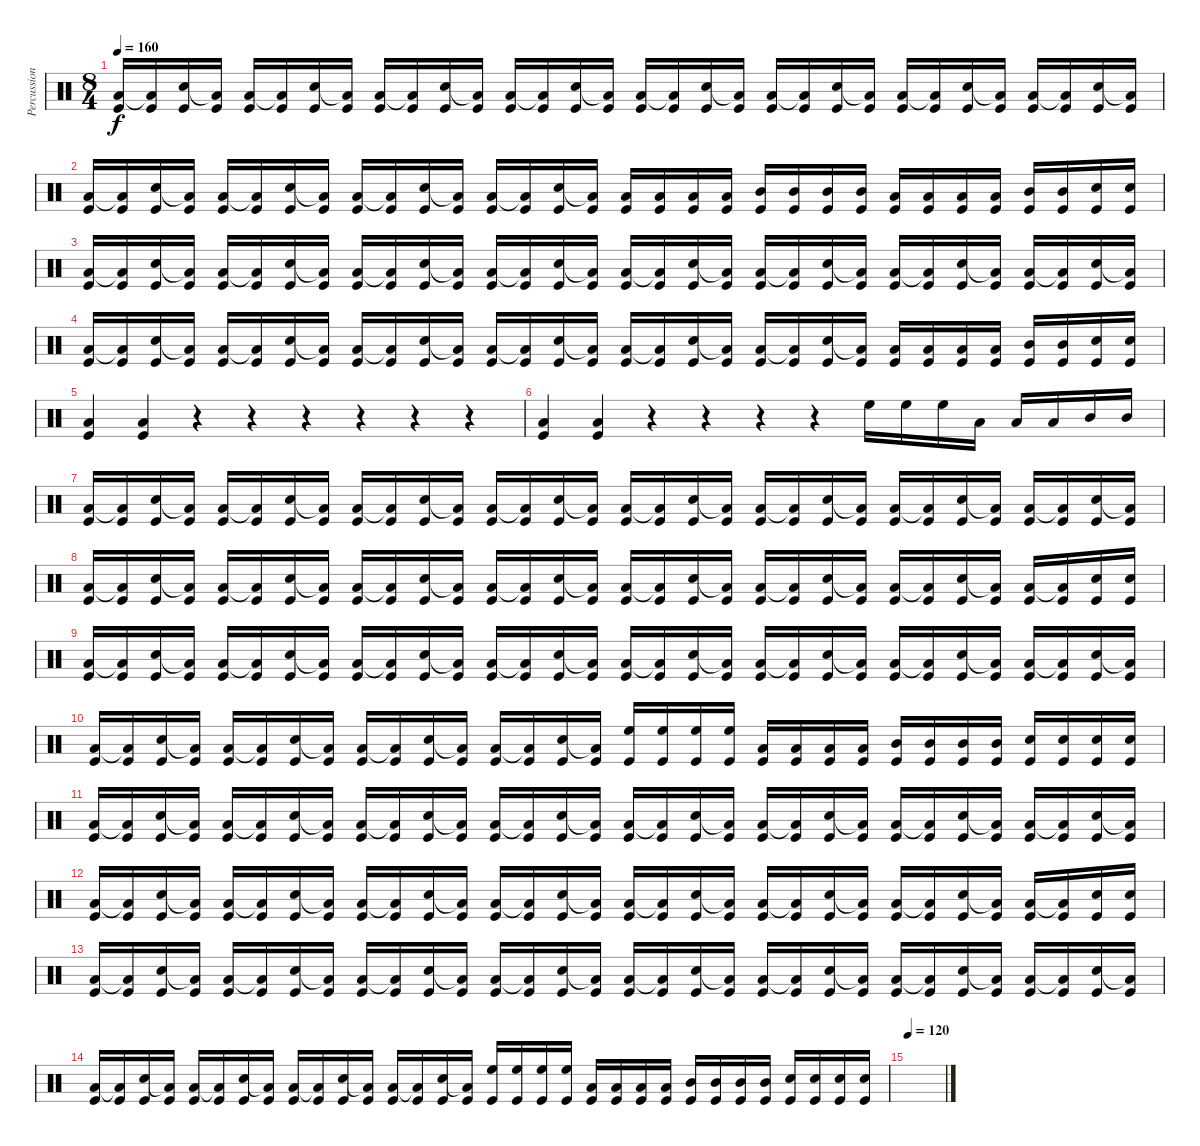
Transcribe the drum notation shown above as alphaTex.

\track ("Percussioni" "Percussion") {instrument percussion}
\staff {score}
\articulation defaults
\ts (8 4)
\tempo 160
\clef neutral
\ks c
("Low Tom (hit)" "Kick (hit)").16{dy f} ("Low Tom (hit)"{t} "Kick (hit)").16 ("Snare (hit) 2" "Kick (hit)").16 ("Low Tom (hit)"{t} "Kick (hit)").16 ("Low Tom (hit)" "Kick (hit)").16 ("Low Tom (hit)"{t} "Kick (hit)").16 ("Snare (hit) 2" "Kick (hit)").16 ("Low Tom (hit)"{t} "Kick (hit)").16 ("Low Tom (hit)" "Kick (hit)").16 ("Low Tom (hit)"{t} "Kick (hit)").16 ("Snare (hit) 2" "Kick (hit)").16 ("Low Tom (hit)"{t} "Kick (hit)").16 ("Low Tom (hit)" "Kick (hit)").16 ("Low Tom (hit)"{t} "Kick (hit)").16 ("Snare (hit) 2" "Kick (hit)").16 ("Low Tom (hit)"{t} "Kick (hit)").16 ("Low Tom (hit)" "Kick (hit)").16 ("Low Tom (hit)"{t} "Kick (hit)").16 ("Snare (hit) 2" "Kick (hit)").16 ("Low Tom (hit)"{t} "Kick (hit)").16 ("Low Tom (hit)" "Kick (hit)").16 ("Low Tom (hit)"{t} "Kick (hit)").16 ("Snare (hit) 2" "Kick (hit)").16 ("Low Tom (hit)"{t} "Kick (hit)").16 ("Low Tom (hit)" "Kick (hit)").16 ("Low Tom (hit)"{t} "Kick (hit)").16 ("Snare (hit) 2" "Kick (hit)").16 ("Low Tom (hit)"{t} "Kick (hit)").16 ("Low Tom (hit)" "Kick (hit)").16 ("Low Tom (hit)"{t} "Kick (hit)").16 ("Snare (hit) 2" "Kick (hit)").16 ("Low Tom (hit)"{t} "Kick (hit)").16 |
("Low Tom (hit)" "Kick (hit)").16 ("Low Tom (hit)"{t} "Kick (hit)").16 ("Snare (hit) 2" "Kick (hit)").16 ("Low Tom (hit)"{t} "Kick (hit)").16 ("Low Tom (hit)" "Kick (hit)").16 ("Low Tom (hit)"{t} "Kick (hit)").16 ("Snare (hit) 2" "Kick (hit)").16 ("Low Tom (hit)"{t} "Kick (hit)").16 ("Low Tom (hit)" "Kick (hit)").16 ("Low Tom (hit)"{t} "Kick (hit)").16 ("Snare (hit) 2" "Kick (hit)").16 ("Low Tom (hit)"{t} "Kick (hit)").16 ("Low Tom (hit)" "Kick (hit)").16 ("Low Tom (hit)"{t} "Kick (hit)").16 ("Snare (hit) 2" "Kick (hit)").16 ("Low Tom (hit)"{t} "Kick (hit)").16 ("Low Tom (hit)" "Kick (hit)").16 ("Low Tom (hit)" "Kick (hit)").16 ("Low Tom (hit)" "Kick (hit)").16 ("Low Tom (hit)" "Kick (hit)").16 ("Mid Tom (hit)" "Kick (hit)").16 ("Mid Tom (hit)" "Kick (hit)").16 ("Mid Tom (hit)" "Kick (hit)").16 ("Mid Tom (hit)" "Kick (hit)").16 ("Low Tom (hit)" "Kick (hit)").16 ("Low Tom (hit)" "Kick (hit)").16 ("Low Tom (hit)" "Kick (hit)").16 ("Low Tom (hit)" "Kick (hit)").16 ("Mid Tom (hit)" "Kick (hit)").16 ("Mid Tom (hit)" "Kick (hit)").16 ("Snare (hit) 2" "Kick (hit)").16 ("Snare (hit) 2" "Kick (hit)").16 |
("Low Tom (hit)" "Kick (hit)").16 ("Low Tom (hit)"{t} "Kick (hit)").16 ("Snare (hit) 2" "Kick (hit)").16 ("Low Tom (hit)"{t} "Kick (hit)").16 ("Low Tom (hit)" "Kick (hit)").16 ("Low Tom (hit)"{t} "Kick (hit)").16 ("Snare (hit) 2" "Kick (hit)").16 ("Low Tom (hit)"{t} "Kick (hit)").16 ("Low Tom (hit)" "Kick (hit)").16 ("Low Tom (hit)"{t} "Kick (hit)").16 ("Snare (hit) 2" "Kick (hit)").16 ("Low Tom (hit)"{t} "Kick (hit)").16 ("Low Tom (hit)" "Kick (hit)").16 ("Low Tom (hit)"{t} "Kick (hit)").16 ("Snare (hit) 2" "Kick (hit)").16 ("Low Tom (hit)"{t} "Kick (hit)").16 ("Low Tom (hit)" "Kick (hit)").16 ("Low Tom (hit)"{t} "Kick (hit)").16 ("Snare (hit) 2" "Kick (hit)").16 ("Low Tom (hit)"{t} "Kick (hit)").16 ("Low Tom (hit)" "Kick (hit)").16 ("Low Tom (hit)"{t} "Kick (hit)").16 ("Snare (hit) 2" "Kick (hit)").16 ("Low Tom (hit)"{t} "Kick (hit)").16 ("Low Tom (hit)" "Kick (hit)").16 ("Low Tom (hit)"{t} "Kick (hit)").16 ("Snare (hit) 2" "Kick (hit)").16 ("Low Tom (hit)"{t} "Kick (hit)").16 ("Low Tom (hit)" "Kick (hit)").16 ("Low Tom (hit)"{t} "Kick (hit)").16 ("Snare (hit) 2" "Kick (hit)").16 ("Low Tom (hit)"{t} "Kick (hit)").16 |
("Low Tom (hit)" "Kick (hit)").16 ("Low Tom (hit)"{t} "Kick (hit)").16 ("Snare (hit) 2" "Kick (hit)").16 ("Low Tom (hit)"{t} "Kick (hit)").16 ("Low Tom (hit)" "Kick (hit)").16 ("Low Tom (hit)"{t} "Kick (hit)").16 ("Snare (hit) 2" "Kick (hit)").16 ("Low Tom (hit)"{t} "Kick (hit)").16 ("Low Tom (hit)" "Kick (hit)").16 ("Low Tom (hit)"{t} "Kick (hit)").16 ("Snare (hit) 2" "Kick (hit)").16 ("Low Tom (hit)"{t} "Kick (hit)").16 ("Low Tom (hit)" "Kick (hit)").16 ("Low Tom (hit)"{t} "Kick (hit)").16 ("Snare (hit) 2" "Kick (hit)").16 ("Low Tom (hit)"{t} "Kick (hit)").16 ("Low Tom (hit)" "Kick (hit)").16 ("Low Tom (hit)"{t} "Kick (hit)").16 ("Snare (hit) 2" "Kick (hit)").16 ("Low Tom (hit)"{t} "Kick (hit)").16 ("Low Tom (hit)" "Kick (hit)").16 ("Low Tom (hit)"{t} "Kick (hit)").16 ("Snare (hit) 2" "Kick (hit)").16 ("Low Tom (hit)"{t} "Kick (hit)").16 ("Low Tom (hit)" "Kick (hit)").16 ("Low Tom (hit)" "Kick (hit)").16 ("Low Tom (hit)" "Kick (hit)").16 ("Low Tom (hit)" "Kick (hit)").16 ("Mid Tom (hit)" "Kick (hit)").16 ("Mid Tom (hit)" "Kick (hit)").16 ("Snare (hit) 2" "Kick (hit)").16 ("Snare (hit) 2" "Kick (hit)").16 |
("Low Tom (hit)" "Kick (hit)").4 ("Low Tom (hit)" "Kick (hit)").4 r.4 r.4 r.4 r.4 r.4 r.4 |
("Low Tom (hit)" "Kick (hit)").4 ("Low Tom (hit)" "Kick (hit)").4 r.4 r.4 r.4 r.4 "High Floor Tom (hit)".16 "High Floor Tom (hit)".16 "High Floor Tom (hit)".16 "Low Tom (hit)".16 "Low Tom (hit)".16 "Low Tom (hit)".16 "Mid Tom (hit)".16 "Mid Tom (hit)".16 |
("Low Tom (hit)" "Kick (hit)").16 ("Low Tom (hit)"{t} "Kick (hit)").16 ("Snare (hit) 2" "Kick (hit)").16 ("Low Tom (hit)"{t} "Kick (hit)").16 ("Low Tom (hit)" "Kick (hit)").16 ("Low Tom (hit)"{t} "Kick (hit)").16 ("Snare (hit) 2" "Kick (hit)").16 ("Low Tom (hit)"{t} "Kick (hit)").16 ("Low Tom (hit)" "Kick (hit)").16 ("Low Tom (hit)"{t} "Kick (hit)").16 ("Snare (hit) 2" "Kick (hit)").16 ("Low Tom (hit)"{t} "Kick (hit)").16 ("Low Tom (hit)" "Kick (hit)").16 ("Low Tom (hit)"{t} "Kick (hit)").16 ("Snare (hit) 2" "Kick (hit)").16 ("Low Tom (hit)"{t} "Kick (hit)").16 ("Low Tom (hit)" "Kick (hit)").16 ("Low Tom (hit)"{t} "Kick (hit)").16 ("Snare (hit) 2" "Kick (hit)").16 ("Low Tom (hit)"{t} "Kick (hit)").16 ("Low Tom (hit)" "Kick (hit)").16 ("Low Tom (hit)"{t} "Kick (hit)").16 ("Snare (hit) 2" "Kick (hit)").16 ("Low Tom (hit)"{t} "Kick (hit)").16 ("Low Tom (hit)" "Kick (hit)").16 ("Low Tom (hit)"{t} "Kick (hit)").16 ("Snare (hit) 2" "Kick (hit)").16 ("Low Tom (hit)"{t} "Kick (hit)").16 ("Low Tom (hit)" "Kick (hit)").16 ("Low Tom (hit)"{t} "Kick (hit)").16 ("Snare (hit) 2" "Kick (hit)").16 ("Low Tom (hit)"{t} "Kick (hit)").16 |
("Low Tom (hit)" "Kick (hit)").16 ("Low Tom (hit)"{t} "Kick (hit)").16 ("Snare (hit) 2" "Kick (hit)").16 ("Low Tom (hit)"{t} "Kick (hit)").16 ("Low Tom (hit)" "Kick (hit)").16 ("Low Tom (hit)"{t} "Kick (hit)").16 ("Snare (hit) 2" "Kick (hit)").16 ("Low Tom (hit)"{t} "Kick (hit)").16 ("Low Tom (hit)" "Kick (hit)").16 ("Low Tom (hit)"{t} "Kick (hit)").16 ("Snare (hit) 2" "Kick (hit)").16 ("Low Tom (hit)"{t} "Kick (hit)").16 ("Low Tom (hit)" "Kick (hit)").16 ("Low Tom (hit)"{t} "Kick (hit)").16 ("Snare (hit) 2" "Kick (hit)").16 ("Low Tom (hit)"{t} "Kick (hit)").16 ("Low Tom (hit)" "Kick (hit)").16 ("Low Tom (hit)"{t} "Kick (hit)").16 ("Snare (hit) 2" "Kick (hit)").16 ("Low Tom (hit)"{t} "Kick (hit)").16 ("Low Tom (hit)" "Kick (hit)").16 ("Low Tom (hit)"{t} "Kick (hit)").16 ("Snare (hit) 2" "Kick (hit)").16 ("Low Tom (hit)"{t} "Kick (hit)").16 ("Low Tom (hit)" "Kick (hit)").16 ("Low Tom (hit)"{t} "Kick (hit)").16 ("Snare (hit) 2" "Kick (hit)").16 ("Low Tom (hit)"{t} "Kick (hit)").16 ("Low Tom (hit)" "Kick (hit)").16 ("Low Tom (hit)"{t} "Kick (hit)").16 ("Snare (hit) 2" "Kick (hit)").16 ("Snare (hit) 2" "Kick (hit)").16 |
("Low Tom (hit)" "Kick (hit)").16 ("Low Tom (hit)"{t} "Kick (hit)").16 ("Snare (hit) 2" "Kick (hit)").16 ("Low Tom (hit)"{t} "Kick (hit)").16 ("Low Tom (hit)" "Kick (hit)").16 ("Low Tom (hit)"{t} "Kick (hit)").16 ("Snare (hit) 2" "Kick (hit)").16 ("Low Tom (hit)"{t} "Kick (hit)").16 ("Low Tom (hit)" "Kick (hit)").16 ("Low Tom (hit)"{t} "Kick (hit)").16 ("Snare (hit) 2" "Kick (hit)").16 ("Low Tom (hit)"{t} "Kick (hit)").16 ("Low Tom (hit)" "Kick (hit)").16 ("Low Tom (hit)"{t} "Kick (hit)").16 ("Snare (hit) 2" "Kick (hit)").16 ("Low Tom (hit)"{t} "Kick (hit)").16 ("Low Tom (hit)" "Kick (hit)").16 ("Low Tom (hit)"{t} "Kick (hit)").16 ("Snare (hit) 2" "Kick (hit)").16 ("Low Tom (hit)"{t} "Kick (hit)").16 ("Low Tom (hit)" "Kick (hit)").16 ("Low Tom (hit)"{t} "Kick (hit)").16 ("Snare (hit) 2" "Kick (hit)").16 ("Low Tom (hit)"{t} "Kick (hit)").16 ("Low Tom (hit)" "Kick (hit)").16 ("Low Tom (hit)"{t} "Kick (hit)").16 ("Snare (hit) 2" "Kick (hit)").16 ("Low Tom (hit)"{t} "Kick (hit)").16 ("Low Tom (hit)" "Kick (hit)").16 ("Low Tom (hit)"{t} "Kick (hit)").16 ("Snare (hit) 2" "Kick (hit)").16 ("Low Tom (hit)"{t} "Kick (hit)").16 |
("Low Tom (hit)" "Kick (hit)").16 ("Low Tom (hit)"{t} "Kick (hit)").16 ("Snare (hit) 2" "Kick (hit)").16 ("Low Tom (hit)"{t} "Kick (hit)").16 ("Low Tom (hit)" "Kick (hit)").16 ("Low Tom (hit)"{t} "Kick (hit)").16 ("Snare (hit) 2" "Kick (hit)").16 ("Low Tom (hit)"{t} "Kick (hit)").16 ("Low Tom (hit)" "Kick (hit)").16 ("Low Tom (hit)"{t} "Kick (hit)").16 ("Snare (hit) 2" "Kick (hit)").16 ("Low Tom (hit)"{t} "Kick (hit)").16 ("Low Tom (hit)" "Kick (hit)").16 ("Low Tom (hit)"{t} "Kick (hit)").16 ("Snare (hit) 2" "Kick (hit)").16 ("Low Tom (hit)"{t} "Kick (hit)").16 ("High Floor Tom (hit)" "Kick (hit)").16 ("High Floor Tom (hit)" "Kick (hit)").16 ("High Floor Tom (hit)" "Kick (hit)").16 ("High Floor Tom (hit)" "Kick (hit)").16 ("Low Tom (hit)" "Kick (hit)").16 ("Low Tom (hit)" "Kick (hit)").16 ("Low Tom (hit)" "Kick (hit)").16 ("Low Tom (hit)" "Kick (hit)").16 ("Mid Tom (hit)" "Kick (hit)").16 ("Mid Tom (hit)" "Kick (hit)").16 ("Mid Tom (hit)" "Kick (hit)").16 ("Mid Tom (hit)" "Kick (hit)").16 ("Snare (hit) 2" "Kick (hit)").16 ("Snare (hit) 2" "Kick (hit)").16 ("Snare (hit) 2" "Kick (hit)").16 ("Snare (hit) 2" "Kick (hit)").16 |
("Low Tom (hit)" "Kick (hit)").16 ("Low Tom (hit)"{t} "Kick (hit)").16 ("Snare (hit) 2" "Kick (hit)").16 ("Low Tom (hit)"{t} "Kick (hit)").16 ("Low Tom (hit)" "Kick (hit)").16 ("Low Tom (hit)"{t} "Kick (hit)").16 ("Snare (hit) 2" "Kick (hit)").16 ("Low Tom (hit)"{t} "Kick (hit)").16 ("Low Tom (hit)" "Kick (hit)").16 ("Low Tom (hit)"{t} "Kick (hit)").16 ("Snare (hit) 2" "Kick (hit)").16 ("Low Tom (hit)"{t} "Kick (hit)").16 ("Low Tom (hit)" "Kick (hit)").16 ("Low Tom (hit)"{t} "Kick (hit)").16 ("Snare (hit) 2" "Kick (hit)").16 ("Low Tom (hit)"{t} "Kick (hit)").16 ("Low Tom (hit)" "Kick (hit)").16 ("Low Tom (hit)"{t} "Kick (hit)").16 ("Snare (hit) 2" "Kick (hit)").16 ("Low Tom (hit)"{t} "Kick (hit)").16 ("Low Tom (hit)" "Kick (hit)").16 ("Low Tom (hit)"{t} "Kick (hit)").16 ("Snare (hit) 2" "Kick (hit)").16 ("Low Tom (hit)"{t} "Kick (hit)").16 ("Low Tom (hit)" "Kick (hit)").16 ("Low Tom (hit)"{t} "Kick (hit)").16 ("Snare (hit) 2" "Kick (hit)").16 ("Low Tom (hit)"{t} "Kick (hit)").16 ("Low Tom (hit)" "Kick (hit)").16 ("Low Tom (hit)"{t} "Kick (hit)").16 ("Snare (hit) 2" "Kick (hit)").16 ("Low Tom (hit)"{t} "Kick (hit)").16 |
("Low Tom (hit)" "Kick (hit)").16 ("Low Tom (hit)"{t} "Kick (hit)").16 ("Snare (hit) 2" "Kick (hit)").16 ("Low Tom (hit)"{t} "Kick (hit)").16 ("Low Tom (hit)" "Kick (hit)").16 ("Low Tom (hit)"{t} "Kick (hit)").16 ("Snare (hit) 2" "Kick (hit)").16 ("Low Tom (hit)"{t} "Kick (hit)").16 ("Low Tom (hit)" "Kick (hit)").16 ("Low Tom (hit)"{t} "Kick (hit)").16 ("Snare (hit) 2" "Kick (hit)").16 ("Low Tom (hit)"{t} "Kick (hit)").16 ("Low Tom (hit)" "Kick (hit)").16 ("Low Tom (hit)"{t} "Kick (hit)").16 ("Snare (hit) 2" "Kick (hit)").16 ("Low Tom (hit)"{t} "Kick (hit)").16 ("Low Tom (hit)" "Kick (hit)").16 ("Low Tom (hit)"{t} "Kick (hit)").16 ("Snare (hit) 2" "Kick (hit)").16 ("Low Tom (hit)"{t} "Kick (hit)").16 ("Low Tom (hit)" "Kick (hit)").16 ("Low Tom (hit)"{t} "Kick (hit)").16 ("Snare (hit) 2" "Kick (hit)").16 ("Low Tom (hit)"{t} "Kick (hit)").16 ("Low Tom (hit)" "Kick (hit)").16 ("Low Tom (hit)"{t} "Kick (hit)").16 ("Snare (hit) 2" "Kick (hit)").16 ("Low Tom (hit)"{t} "Kick (hit)").16 ("Low Tom (hit)" "Kick (hit)").16 ("Low Tom (hit)"{t} "Kick (hit)").16 ("Snare (hit) 2" "Kick (hit)").16 ("Snare (hit) 2" "Kick (hit)").16 |
("Low Tom (hit)" "Kick (hit)").16 ("Low Tom (hit)"{t} "Kick (hit)").16 ("Snare (hit) 2" "Kick (hit)").16 ("Low Tom (hit)"{t} "Kick (hit)").16 ("Low Tom (hit)" "Kick (hit)").16 ("Low Tom (hit)"{t} "Kick (hit)").16 ("Snare (hit) 2" "Kick (hit)").16 ("Low Tom (hit)"{t} "Kick (hit)").16 ("Low Tom (hit)" "Kick (hit)").16 ("Low Tom (hit)"{t} "Kick (hit)").16 ("Snare (hit) 2" "Kick (hit)").16 ("Low Tom (hit)"{t} "Kick (hit)").16 ("Low Tom (hit)" "Kick (hit)").16 ("Low Tom (hit)"{t} "Kick (hit)").16 ("Snare (hit) 2" "Kick (hit)").16 ("Low Tom (hit)"{t} "Kick (hit)").16 ("Low Tom (hit)" "Kick (hit)").16 ("Low Tom (hit)"{t} "Kick (hit)").16 ("Snare (hit) 2" "Kick (hit)").16 ("Low Tom (hit)"{t} "Kick (hit)").16 ("Low Tom (hit)" "Kick (hit)").16 ("Low Tom (hit)"{t} "Kick (hit)").16 ("Snare (hit) 2" "Kick (hit)").16 ("Low Tom (hit)"{t} "Kick (hit)").16 ("Low Tom (hit)" "Kick (hit)").16 ("Low Tom (hit)"{t} "Kick (hit)").16 ("Snare (hit) 2" "Kick (hit)").16 ("Low Tom (hit)"{t} "Kick (hit)").16 ("Low Tom (hit)" "Kick (hit)").16 ("Low Tom (hit)"{t} "Kick (hit)").16 ("Snare (hit) 2" "Kick (hit)").16 ("Low Tom (hit)"{t} "Kick (hit)").16 |
("Low Tom (hit)" "Kick (hit)").16 ("Low Tom (hit)"{t} "Kick (hit)").16 ("Snare (hit) 2" "Kick (hit)").16 ("Low Tom (hit)"{t} "Kick (hit)").16 ("Low Tom (hit)" "Kick (hit)").16 ("Low Tom (hit)"{t} "Kick (hit)").16 ("Snare (hit) 2" "Kick (hit)").16 ("Low Tom (hit)"{t} "Kick (hit)").16 ("Low Tom (hit)" "Kick (hit)").16 ("Low Tom (hit)"{t} "Kick (hit)").16 ("Snare (hit) 2" "Kick (hit)").16 ("Low Tom (hit)"{t} "Kick (hit)").16 ("Low Tom (hit)" "Kick (hit)").16 ("Low Tom (hit)"{t} "Kick (hit)").16 ("Snare (hit) 2" "Kick (hit)").16 ("Low Tom (hit)"{t} "Kick (hit)").16 ("High Floor Tom (hit)" "Kick (hit)").16 ("High Floor Tom (hit)" "Kick (hit)").16 ("High Floor Tom (hit)" "Kick (hit)").16 ("High Floor Tom (hit)" "Kick (hit)").16 ("Low Tom (hit)" "Kick (hit)").16 ("Low Tom (hit)" "Kick (hit)").16 ("Low Tom (hit)" "Kick (hit)").16 ("Low Tom (hit)" "Kick (hit)").16 ("Mid Tom (hit)" "Kick (hit)").16 ("Mid Tom (hit)" "Kick (hit)").16 ("Mid Tom (hit)" "Kick (hit)").16 ("Mid Tom (hit)" "Kick (hit)").16 ("Snare (hit) 2" "Kick (hit)").16 ("Snare (hit) 2" "Kick (hit)").16 ("Snare (hit) 2" "Kick (hit)").16 ("Snare (hit) 2" "Kick (hit)").16 |
\tempo 120
